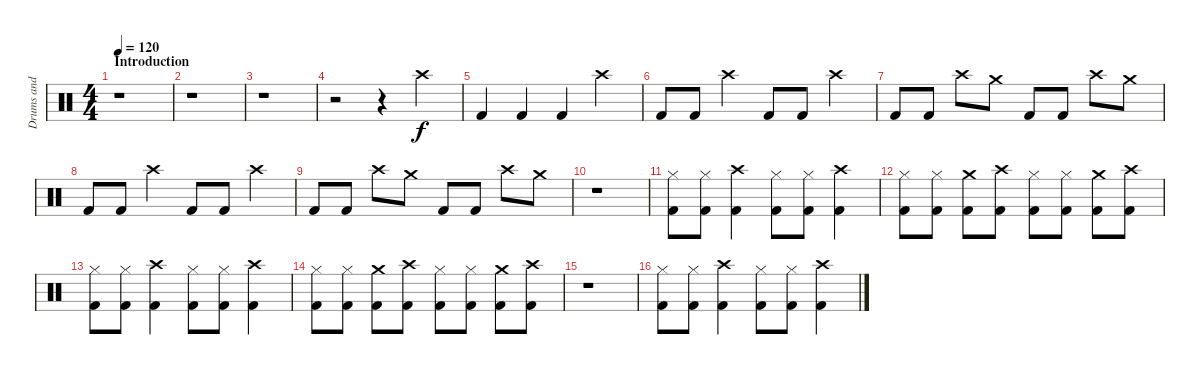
\track ("Drums and Percussion" "Drums and ") {instrument percussion}
\staff {score}
\articulation defaults
\ts (4 4)
\section ("" "Introduction")
\tempo 120
\clef neutral
\ks c
r.1{dy f} |
r.1 |
r.1 |
r.2 r.4 "Crash high (hit)".4 |
"Kick (hit) 2".4 "Kick (hit) 2".4 "Kick (hit) 2".4 "Crash high (hit)".4 |
"Kick (hit) 2".8 "Kick (hit) 2".8 "Crash high (hit)".4 "Kick (hit) 2".8 "Kick (hit) 2".8 "Crash high (hit)".4 |
"Kick (hit) 2".8 "Kick (hit) 2".8 "Crash high (hit)".8 "Crash medium (hit)".8 "Kick (hit) 2".8 "Kick (hit) 2".8 "Crash high (hit)".8 "Crash medium (hit)".8 |
"Kick (hit) 2".8 "Kick (hit) 2".8 "Crash high (hit)".4 "Kick (hit) 2".8 "Kick (hit) 2".8 "Crash high (hit)".4 |
"Kick (hit) 2".8 "Kick (hit) 2".8 "Crash high (hit)".8 "Crash medium (hit)".8 "Kick (hit) 2".8 "Kick (hit) 2".8 "Crash high (hit)".8 "Crash medium (hit)".8 |
r.1 |
("Hi-Hat (closed)" "Kick (hit) 2").8 ("Hi-Hat (closed)" "Kick (hit) 2").8 ("Crash high (hit)" "Kick (hit) 2").4 ("Hi-Hat (closed)" "Kick (hit) 2").8 ("Hi-Hat (closed)" "Kick (hit) 2").8 ("Crash high (hit)" "Kick (hit) 2").4 |
("Hi-Hat (closed)" "Kick (hit) 2").8 ("Hi-Hat (closed)" "Kick (hit) 2").8 ("Crash medium (hit)" "Kick (hit) 2").8 ("Crash high (hit)" "Kick (hit) 2").8 ("Hi-Hat (closed)" "Kick (hit) 2").8 ("Hi-Hat (closed)" "Kick (hit) 2").8 ("Crash medium (hit)" "Kick (hit) 2").8 ("Crash high (hit)" "Kick (hit) 2").8 |
("Hi-Hat (closed)" "Kick (hit) 2").8 ("Hi-Hat (closed)" "Kick (hit) 2").8 ("Crash high (hit)" "Kick (hit) 2").4 ("Hi-Hat (closed)" "Kick (hit) 2").8 ("Hi-Hat (closed)" "Kick (hit) 2").8 ("Crash high (hit)" "Kick (hit) 2").4 |
("Hi-Hat (closed)" "Kick (hit) 2").8 ("Hi-Hat (closed)" "Kick (hit) 2").8 ("Crash medium (hit)" "Kick (hit) 2").8 ("Crash high (hit)" "Kick (hit) 2").8 ("Hi-Hat (closed)" "Kick (hit) 2").8 ("Hi-Hat (closed)" "Kick (hit) 2").8 ("Crash medium (hit)" "Kick (hit) 2").8 ("Crash high (hit)" "Kick (hit) 2").8 |
r.1 |
("Hi-Hat (closed)" "Kick (hit) 2").8 ("Hi-Hat (closed)" "Kick (hit) 2").8 ("Crash high (hit)" "Kick (hit) 2").4 ("Hi-Hat (closed)" "Kick (hit) 2").8 ("Hi-Hat (closed)" "Kick (hit) 2").8 ("Crash high (hit)" "Kick (hit) 2").4
